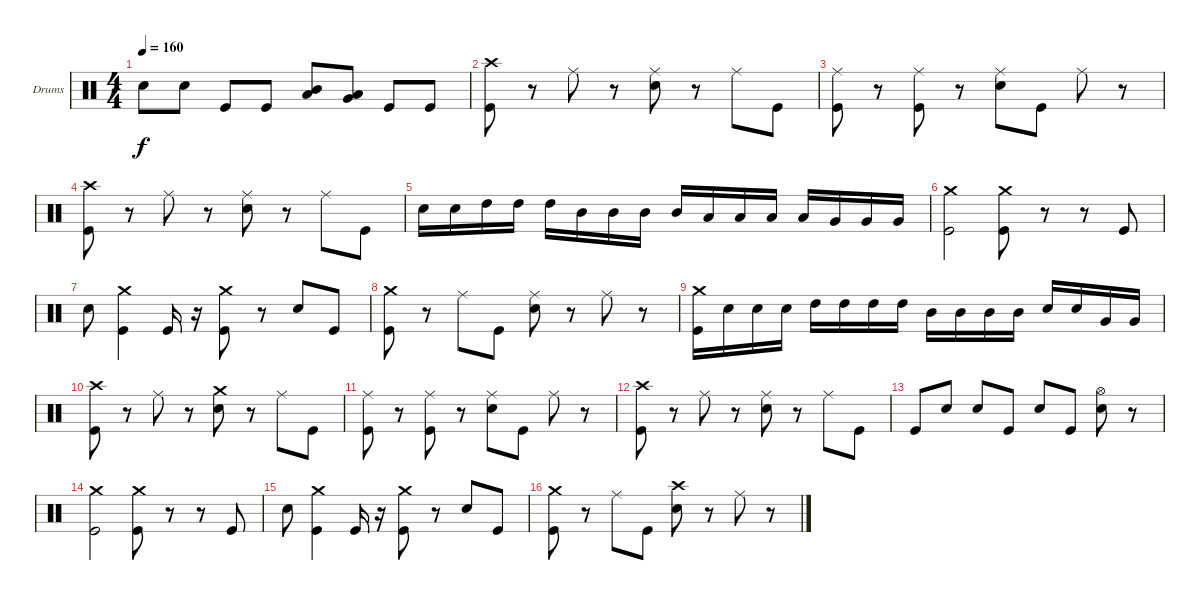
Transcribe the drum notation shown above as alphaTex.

\bracketExtendMode groupsimilarinstruments
\firstSystemTrackNameOrientation horizontal
\otherSystemsTrackNameOrientation horizontal
\track ("Drumkit" "Drums") {instrument percussion}
\staff {score}
\articulation defaults
\ts (4 4)
\tempo 160
\clef neutral
\ks c "Snare (hit) 2".8{dy f} "Snare (hit) 2".8 "Kick (hit)".8 "Kick (hit)".8
("Mid Tom (hit)" "Low Tom (hit)").8 ("Very Low Tom (hit)" "Low Tom (hit)").8 "Kick (hit)".8 "Kick (hit)".8 |
("Crash high (hit)" "Kick (hit)").8 r.8 "Ride (middle)".8 r.8 ("Ride (middle)" "Snare (hit) 2").8 r.8 "Ride (middle)".8 "Kick (hit)".8 |
("Ride (middle)" "Kick (hit)").8 r.8 ("Ride (middle)" "Kick (hit)").8 r.8 ("Ride (middle)" "Snare (hit) 2").8 "Kick (hit)".8 "Ride (middle)".8 r.8 |
("Crash high (hit)" "Kick (hit)").8 r.8 "Ride (middle)".8 r.8 ("Ride (middle)" "Snare (hit) 2").8 r.8 "Ride (middle)".8 "Kick (hit)".8 |
"Snare (hit) 2".16 "Snare (hit) 2".16 "High Tom (hit)".16 "High Tom (hit)".16 "High Tom (hit)".16 "Mid Tom (hit)".16 "Mid Tom (hit)".16 "Mid Tom (hit)".16 "Mid Tom (hit)".16 "Low Tom (hit)".16 "Low Tom (hit)".16 "Low Tom (hit)".16 "Low Tom (hit)".16 "Very Low Tom (hit)".16 "Very Low Tom (hit)".16 "Very Low Tom (hit)".16 |
("Crash medium (hit)" "Kick (hit)").2 ("Crash medium (hit)" "Kick (hit)").8 r.8 r.8 "Kick (hit)".8 |
"Snare (hit) 2".8 ("Crash medium (hit)" "Kick (hit)").4 "Kick (hit)".16 r.16 ("Crash medium (hit)" "Kick (hit)").8 r.8 "Snare (hit) 2".8 "Kick (hit)".8 |
("Crash medium (hit)" "Kick (hit)").8 r.8 "Ride (middle)".8 "Kick (hit)".8 ("Ride (middle)" "Snare (hit) 2").8 r.8 "Ride (middle)".8 r.8 |
("Crash medium (hit)" "Kick (hit)").16 "Snare (hit) 2".16 "Snare (hit) 2".16 "Snare (hit) 2".16 "High Tom (hit)".16 "High Tom (hit)".16 "High Tom (hit)".16 "High Tom (hit)".16 "Mid Tom (hit)".16 "Mid Tom (hit)".16 "Mid Tom (hit)".16 "Mid Tom (hit)".16 "Snare (hit) 2".16 "Snare (hit) 2".16 "Very Low Tom (hit)".16 "Very Low Tom (hit)".16 |
("Crash high (hit)" "Kick (hit)").8 r.8 "Ride (middle)".8 r.8 ("Crash medium (hit)" "Snare (hit) 2").8 r.8 "Ride (middle)".8 "Kick (hit)".8 |
("Ride (middle)" "Kick (hit)").8 r.8 ("Ride (middle)" "Kick (hit)").8 r.8 ("Ride (middle)" "Snare (hit) 2").8 "Kick (hit)".8 "Ride (middle)".8 r.8 |
("Crash high (hit)" "Kick (hit)").8 r.8 "Ride (middle)".8 r.8 ("Ride (middle)" "Snare (hit) 2").8 r.8 "Ride (middle)".8 "Kick (hit)".8 |
"Kick (hit)".8 "Snare (hit) 2".8 "Snare (hit) 2".8 "Kick (hit)".8 "Snare (hit) 2".8 "Kick (hit)".8 ("Hi-Hat (open)" "Snare (hit) 2").8 r.8 |
("Crash medium (hit)" "Kick (hit)").2 ("Crash medium (hit)" "Kick (hit)").8 r.8 r.8 "Kick (hit)".8 |
"Snare (hit) 2".8 ("Crash medium (hit)" "Kick (hit)").4 "Kick (hit)".16 r.16 ("Crash medium (hit)" "Kick (hit)").8 r.8 "Snare (hit) 2".8 "Kick (hit)".8 |
("Crash medium (hit)" "Kick (hit)").8 r.8 "Ride (middle)".8 "Kick (hit)".8 ("Crash high (hit)" "Snare (hit) 2").8 r.8 "Ride (middle)".8 r.8
